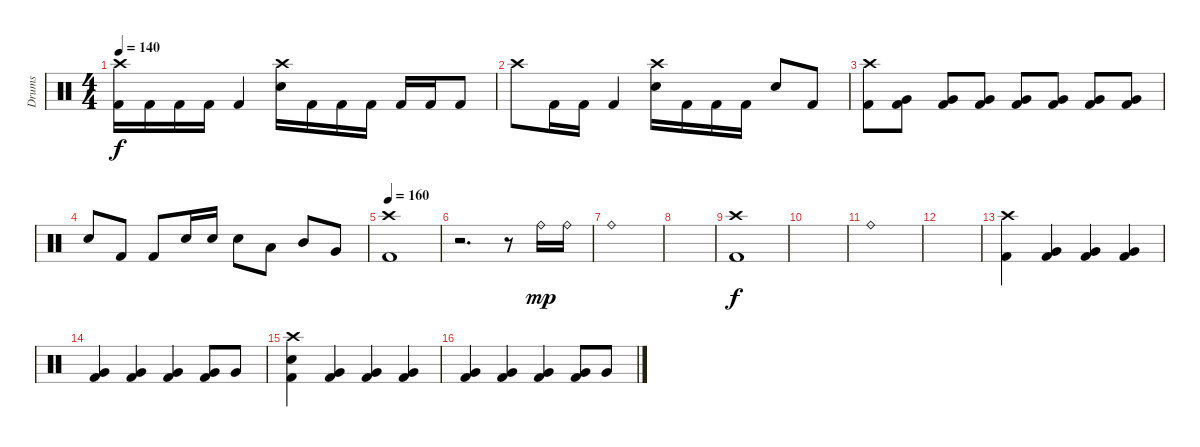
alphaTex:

\track ("Drums" "Drums") {instrument percussion}
\staff {score}
\articulation defaults
\ts (4 4)
\tempo 140
\clef neutral
\ks c
("Crash high (hit)" "Kick (hit) 2").16{dy f} "Kick (hit) 2".16 "Kick (hit) 2".16 "Kick (hit) 2".16 "Kick (hit) 2".4 ("Crash high (hit)" "Electric Snare (hit)").16 "Kick (hit) 2".16 "Kick (hit) 2".16 "Kick (hit) 2".16 "Kick (hit) 2".16 "Kick (hit) 2".16 "Kick (hit) 2".8 |
"Crash high (hit)".8 "Kick (hit) 2".16 "Kick (hit) 2".16 "Kick (hit) 2".4 ("Crash high (hit)" "Electric Snare (hit)").16 "Kick (hit) 2".16 "Kick (hit) 2".16 "Kick (hit) 2".16 "Electric Snare (hit)".8 "Kick (hit) 2".8 |
("Crash high (hit)" "Kick (hit) 2").8 ("Very Low Tom (hit)" "Kick (hit) 2").8 ("Very Low Tom (hit)" "Kick (hit) 2").8 ("Very Low Tom (hit)" "Kick (hit) 2").8 ("Very Low Tom (hit)" "Kick (hit) 2").8 ("Very Low Tom (hit)" "Kick (hit) 2").8 ("Very Low Tom (hit)" "Kick (hit) 2").8 ("Very Low Tom (hit)" "Kick (hit) 2").8 |
"Electric Snare (hit)".8 "Kick (hit) 2".8 "Kick (hit) 2".8 "Electric Snare (hit)".16 "Electric Snare (hit)".16 "Electric Snare (hit)".8 "Low Tom (hit)".8 "Mid Tom (hit)".8 "Very Low Tom (hit)".8 |
\tempo 160
("Crash high (hit)" "Kick (hit) 2").1 |
r.2{d} r.8 "Ride (bell)".16{dy mp} "Ride (bell)".16 |
"Ride (bell)".1 |
|
("Crash high (hit)" "Kick (hit) 2").1{dy f} |
|
"Ride (bell)".1 |
|
("Crash high (hit)" "Kick (hit) 2").4 ("Very Low Tom (hit)" "Kick (hit) 2").4 ("Very Low Tom (hit)" "Kick (hit) 2").4 ("Very Low Tom (hit)" "Kick (hit) 2").4 |
("Very Low Tom (hit)" "Kick (hit) 2").4 ("Very Low Tom (hit)" "Kick (hit) 2").4 ("Very Low Tom (hit)" "Kick (hit) 2").4 ("Very Low Tom (hit)" "Kick (hit) 2").8 "Very Low Tom (hit)".8 |
("Crash high (hit)" "Electric Snare (hit)" "Kick (hit) 2").4 ("Very Low Tom (hit)" "Kick (hit) 2").4 ("Very Low Tom (hit)" "Kick (hit) 2").4 ("Very Low Tom (hit)" "Kick (hit) 2").4 |
("Very Low Tom (hit)" "Kick (hit) 2").4 ("Very Low Tom (hit)" "Kick (hit) 2").4 ("Very Low Tom (hit)" "Kick (hit) 2").4 ("Very Low Tom (hit)" "Kick (hit) 2").8 "Very Low Tom (hit)".8
